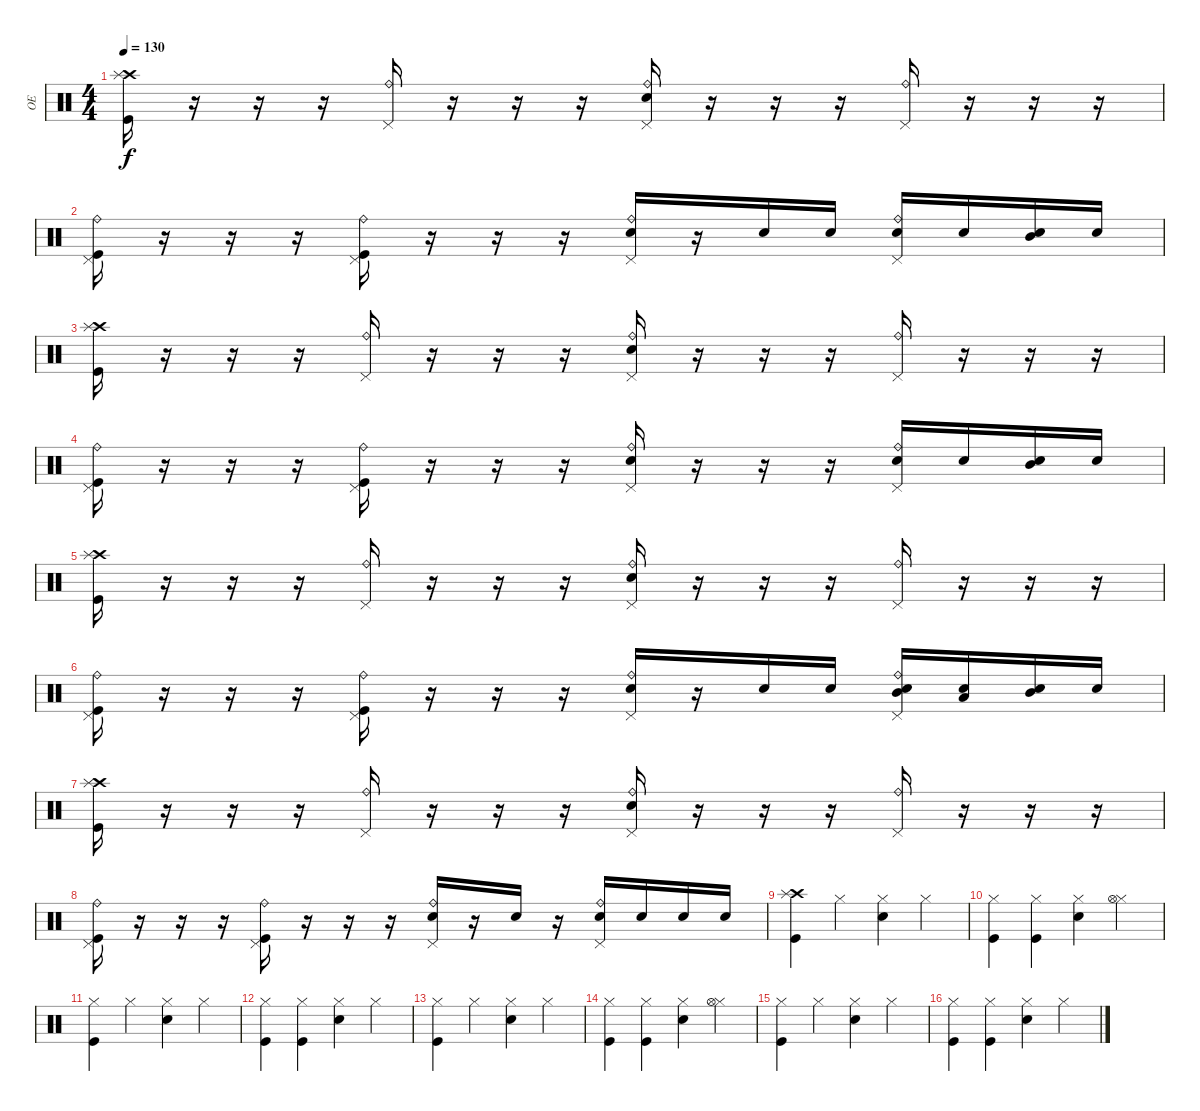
\track ("OE" "OE") {instrument percussion}
\staff {score}
\articulation defaults
\ts (4 4)
\tempo 130
\clef neutral
\ks c
("Crash high (hit)" "Kick (hit)" "Splash (hit)").16{dy f} r.16 r.16 r.16 ("Pedal Hi-Hat (hit)" "Ride (bell)").16 r.16 r.16 r.16 ("Pedal Hi-Hat (hit)" "Ride (bell)" "Snare (hit) 2").16 r.16 r.16 r.16 ("Pedal Hi-Hat (hit)" "Ride (bell)").16 r.16 r.16 r.16 |
("Pedal Hi-Hat (hit)" "Ride (bell)" "Kick (hit)").16 r.16 r.16 r.16 ("Pedal Hi-Hat (hit)" "Kick (hit)" "Ride (bell)").16 r.16 r.16 r.16 ("Pedal Hi-Hat (hit)" "Snare (hit) 2" "Ride (bell)").16 r.16 "Snare (hit) 2".16 "Snare (hit) 2".16 ("Pedal Hi-Hat (hit)" "Ride (bell)" "Snare (hit) 2").16 "Snare (hit) 2".16 ("Snare (hit) 2" "Mid Tom (hit)").16 "Snare (hit) 2".16 |
("Crash high (hit)" "Kick (hit)" "Splash (hit)").16 r.16 r.16 r.16 ("Pedal Hi-Hat (hit)" "Ride (bell)").16 r.16 r.16 r.16 ("Pedal Hi-Hat (hit)" "Ride (bell)" "Snare (hit) 2").16 r.16 r.16 r.16 ("Pedal Hi-Hat (hit)" "Ride (bell)").16 r.16 r.16 r.16 |
("Pedal Hi-Hat (hit)" "Ride (bell)" "Kick (hit)").16 r.16 r.16 r.16 ("Pedal Hi-Hat (hit)" "Kick (hit)" "Ride (bell)").16 r.16 r.16 r.16 ("Pedal Hi-Hat (hit)" "Snare (hit) 2" "Ride (bell)").16 r.16 r.16 r.16 ("Pedal Hi-Hat (hit)" "Ride (bell)" "Snare (hit) 2").16 "Snare (hit) 2".16 ("Snare (hit) 2" "Mid Tom (hit)").16 "Snare (hit) 2".16 |
("Crash high (hit)" "Kick (hit)" "Splash (hit)").16 r.16 r.16 r.16 ("Pedal Hi-Hat (hit)" "Ride (bell)").16 r.16 r.16 r.16 ("Pedal Hi-Hat (hit)" "Ride (bell)" "Snare (hit) 2").16 r.16 r.16 r.16 ("Pedal Hi-Hat (hit)" "Ride (bell)").16 r.16 r.16 r.16 |
("Pedal Hi-Hat (hit)" "Ride (bell)" "Kick (hit)").16 r.16 r.16 r.16 ("Pedal Hi-Hat (hit)" "Kick (hit)" "Ride (bell)").16 r.16 r.16 r.16 ("Pedal Hi-Hat (hit)" "Snare (hit) 2" "Ride (bell)").16 r.16 "Snare (hit) 2".16 "Snare (hit) 2".16 ("Pedal Hi-Hat (hit)" "Ride (bell)" "Snare (hit) 2" "Mid Tom (hit)").16 ("Snare (hit) 2" "Low Tom (hit)").16 ("Snare (hit) 2" "Mid Tom (hit)").16 "Snare (hit) 2".16 |
("Crash high (hit)" "Kick (hit)" "Splash (hit)").16 r.16 r.16 r.16 ("Pedal Hi-Hat (hit)" "Ride (bell)").16 r.16 r.16 r.16 ("Pedal Hi-Hat (hit)" "Ride (bell)" "Snare (hit) 2").16 r.16 r.16 r.16 ("Pedal Hi-Hat (hit)" "Ride (bell)").16 r.16 r.16 r.16 |
("Pedal Hi-Hat (hit)" "Ride (bell)" "Kick (hit)").16 r.16 r.16 r.16 ("Pedal Hi-Hat (hit)" "Kick (hit)" "Ride (bell)").16 r.16 r.16 r.16 ("Pedal Hi-Hat (hit)" "Snare (hit) 2" "Ride (bell)").16 r.16 "Snare (hit) 2".16 r.16 ("Pedal Hi-Hat (hit)" "Ride (bell)" "Snare (hit) 2").16 "Snare (hit) 2".16 "Snare (hit) 2".16 "Snare (hit) 2".16 |
("Kick (hit)" "Crash high (hit)" "Splash (hit)").4 "Hi-Hat (closed)".4 ("Hi-Hat (closed)" "Snare (hit) 2").4 "Hi-Hat (closed)".4 |
("Kick (hit)" "Hi-Hat (closed)").4 ("Kick (hit)" "Hi-Hat (closed)").4 ("Snare (hit) 2" "Hi-Hat (closed)").4 ("Hi-Hat (closed)" "Hi-Hat (open)").4 |
("Kick (hit)" "Hi-Hat (closed)").4 "Hi-Hat (closed)".4 ("Snare (hit) 2" "Hi-Hat (closed)").4 "Hi-Hat (closed)".4 |
("Kick (hit)" "Hi-Hat (closed)").4 ("Kick (hit)" "Hi-Hat (closed)").4 ("Snare (hit) 2" "Hi-Hat (closed)").4 "Hi-Hat (closed)".4 |
("Kick (hit)" "Hi-Hat (closed)").4 "Hi-Hat (closed)".4 ("Snare (hit) 2" "Hi-Hat (closed)").4 "Hi-Hat (closed)".4 |
("Kick (hit)" "Hi-Hat (closed)").4 ("Kick (hit)" "Hi-Hat (closed)").4 ("Snare (hit) 2" "Hi-Hat (closed)").4 ("Hi-Hat (closed)" "Hi-Hat (open)").4 |
("Kick (hit)" "Hi-Hat (closed)").4 "Hi-Hat (closed)".4 ("Snare (hit) 2" "Hi-Hat (closed)").4 "Hi-Hat (closed)".4 |
("Kick (hit)" "Hi-Hat (closed)").4 ("Kick (hit)" "Hi-Hat (closed)").4 ("Snare (hit) 2" "Hi-Hat (closed)").4 "Hi-Hat (closed)".4
